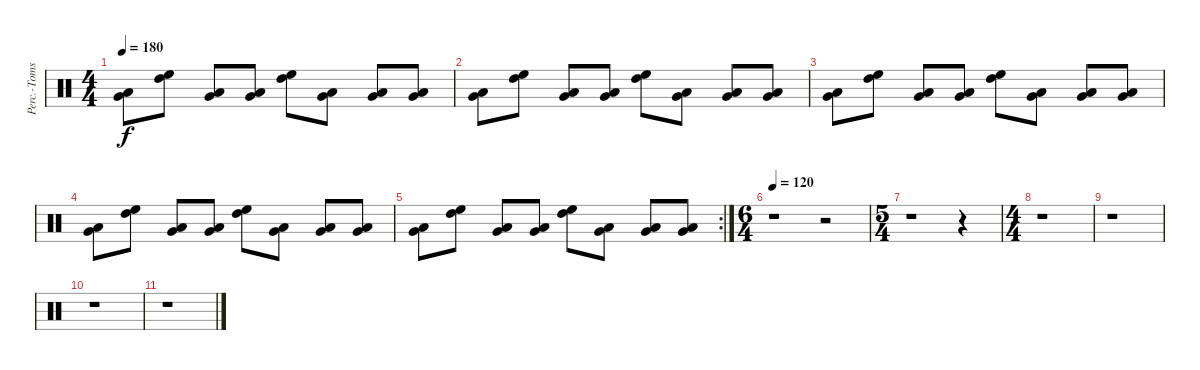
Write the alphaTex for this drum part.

\track ("Perc.-Toms " "Perc.-Toms") {instrument percussion}
\staff {score}
\articulation defaults
\ts (4 4)
\tempo 180
\clef neutral
\ks c
("Very Low Tom (hit)" "Low Floor Tom (hit)").8{dy f} ("High Floor Tom (hit)" "High Tom (hit)").8 ("Very Low Tom (hit)" "Low Floor Tom (hit)").8 ("Very Low Tom (hit)" "Low Floor Tom (hit)").8 ("High Floor Tom (hit)" "High Tom (hit)").8 ("Very Low Tom (hit)" "Low Floor Tom (hit)").8 ("Very Low Tom (hit)" "Low Floor Tom (hit)").8 ("Very Low Tom (hit)" "Low Floor Tom (hit)").8 |
("Very Low Tom (hit)" "Low Floor Tom (hit)").8 ("High Floor Tom (hit)" "High Tom (hit)").8 ("Very Low Tom (hit)" "Low Floor Tom (hit)").8 ("Very Low Tom (hit)" "Low Floor Tom (hit)").8 ("High Floor Tom (hit)" "High Tom (hit)").8 ("Very Low Tom (hit)" "Low Floor Tom (hit)").8 ("Very Low Tom (hit)" "Low Floor Tom (hit)").8 ("Very Low Tom (hit)" "Low Floor Tom (hit)").8 |
("Very Low Tom (hit)" "Low Floor Tom (hit)").8 ("High Floor Tom (hit)" "High Tom (hit)").8 ("Very Low Tom (hit)" "Low Floor Tom (hit)").8 ("Very Low Tom (hit)" "Low Floor Tom (hit)").8 ("High Floor Tom (hit)" "High Tom (hit)").8 ("Very Low Tom (hit)" "Low Floor Tom (hit)").8 ("Very Low Tom (hit)" "Low Floor Tom (hit)").8 ("Very Low Tom (hit)" "Low Floor Tom (hit)").8 |
("Very Low Tom (hit)" "Low Floor Tom (hit)").8 ("High Floor Tom (hit)" "High Tom (hit)").8 ("Very Low Tom (hit)" "Low Floor Tom (hit)").8 ("Very Low Tom (hit)" "Low Floor Tom (hit)").8 ("High Floor Tom (hit)" "High Tom (hit)").8 ("Very Low Tom (hit)" "Low Floor Tom (hit)").8 ("Very Low Tom (hit)" "Low Floor Tom (hit)").8 ("Very Low Tom (hit)" "Low Floor Tom (hit)").8 |
\rc 2
("Very Low Tom (hit)" "Low Floor Tom (hit)").8 ("High Floor Tom (hit)" "High Tom (hit)").8 ("Very Low Tom (hit)" "Low Floor Tom (hit)").8 ("Very Low Tom (hit)" "Low Floor Tom (hit)").8 ("High Floor Tom (hit)" "High Tom (hit)").8 ("Very Low Tom (hit)" "Low Floor Tom (hit)").8 ("Very Low Tom (hit)" "Low Floor Tom (hit)").8 ("Very Low Tom (hit)" "Low Floor Tom (hit)").8 |
\ts (6 4)
\tempo 120
r.1 r.2 |
\ts (5 4)
r.1 r.4 |
\ts (4 4)
r.1 |
r.1 |
r.1 |
r.1
